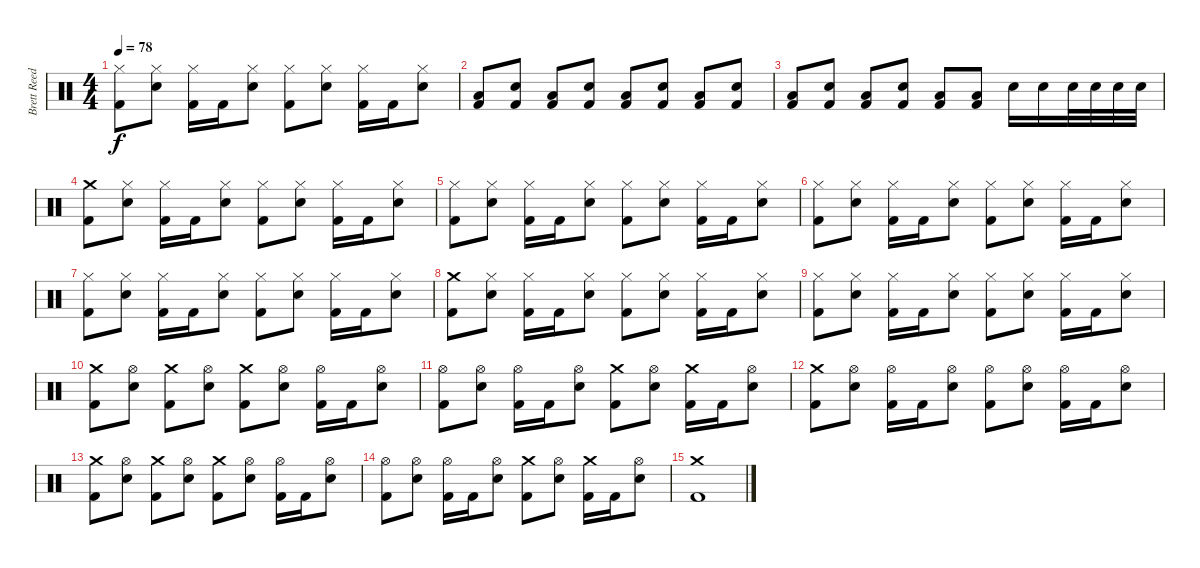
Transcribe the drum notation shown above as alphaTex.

\track ("Brett Reed" "Brett Reed") {instrument percussion}
\staff {score}
\articulation defaults
\ts (4 4)
\tempo 78
\clef neutral
\ks c
("Hi-Hat (closed)" "Kick (hit) 2").8{dy f} ("Hi-Hat (closed)" "Electric Snare (hit)").8 ("Hi-Hat (closed)" "Kick (hit) 2").16 "Kick (hit) 2".16 ("Hi-Hat (closed)" "Electric Snare (hit)").8 ("Hi-Hat (closed)" "Kick (hit) 2").8 ("Hi-Hat (closed)" "Electric Snare (hit)").8 ("Hi-Hat (closed)" "Kick (hit) 2").16 "Kick (hit) 2".16 ("Hi-Hat (closed)" "Electric Snare (hit)").8 |
("Low Floor Tom (hit)" "Kick (hit) 2").8 ("Electric Snare (hit)" "Kick (hit) 2").8 ("Low Floor Tom (hit)" "Kick (hit) 2").8 ("Electric Snare (hit)" "Kick (hit) 2").8 ("Low Floor Tom (hit)" "Kick (hit) 2").8 ("Electric Snare (hit)" "Kick (hit) 2").8 ("Low Floor Tom (hit)" "Kick (hit) 2").8 ("Electric Snare (hit)" "Kick (hit) 2").8 |
("Low Floor Tom (hit)" "Kick (hit) 2").8 ("Electric Snare (hit)" "Kick (hit) 2").8 ("Low Floor Tom (hit)" "Kick (hit) 2").8 ("Electric Snare (hit)" "Kick (hit) 2").8 ("Low Floor Tom (hit)" "Kick (hit) 2").8 ("Low Floor Tom (hit)" "Kick (hit) 2").8 "Snare (hit) 2".16 "Snare (hit) 2".16 "Snare (hit) 2".32 "Snare (hit) 2".32 "Snare (hit) 2".32 "Snare (hit) 2".32 |
("Crash medium (hit)" "Kick (hit) 2").8 ("Hi-Hat (closed)" "Electric Snare (hit)").8 ("Hi-Hat (closed)" "Kick (hit) 2").16 "Kick (hit) 2".16 ("Hi-Hat (closed)" "Electric Snare (hit)").8 ("Hi-Hat (closed)" "Kick (hit) 2").8 ("Hi-Hat (closed)" "Electric Snare (hit)").8 ("Hi-Hat (closed)" "Kick (hit) 2").16 "Kick (hit) 2".16 ("Hi-Hat (closed)" "Electric Snare (hit)").8 |
("Hi-Hat (closed)" "Kick (hit) 2").8 ("Hi-Hat (closed)" "Electric Snare (hit)").8 ("Hi-Hat (closed)" "Kick (hit) 2").16 "Kick (hit) 2".16 ("Hi-Hat (closed)" "Electric Snare (hit)").8 ("Hi-Hat (closed)" "Kick (hit) 2").8 ("Hi-Hat (closed)" "Electric Snare (hit)").8 ("Hi-Hat (closed)" "Kick (hit) 2").16 "Kick (hit) 2".16 ("Hi-Hat (closed)" "Electric Snare (hit)").8 |
("Hi-Hat (closed)" "Kick (hit) 2").8 ("Hi-Hat (closed)" "Electric Snare (hit)").8 ("Hi-Hat (closed)" "Kick (hit) 2").16 "Kick (hit) 2".16 ("Hi-Hat (closed)" "Electric Snare (hit)").8 ("Hi-Hat (closed)" "Kick (hit) 2").8 ("Hi-Hat (closed)" "Electric Snare (hit)").8 ("Hi-Hat (closed)" "Kick (hit) 2").16 "Kick (hit) 2".16 ("Hi-Hat (closed)" "Electric Snare (hit)").8 |
("Hi-Hat (closed)" "Kick (hit) 2").8 ("Hi-Hat (closed)" "Electric Snare (hit)").8 ("Hi-Hat (closed)" "Kick (hit) 2").16 "Kick (hit) 2".16 ("Hi-Hat (closed)" "Electric Snare (hit)").8 ("Hi-Hat (closed)" "Kick (hit) 2").8 ("Hi-Hat (closed)" "Electric Snare (hit)").8 ("Hi-Hat (closed)" "Kick (hit) 2").16 "Kick (hit) 2".16 ("Hi-Hat (closed)" "Electric Snare (hit)").8 |
("Crash medium (hit)" "Kick (hit) 2").8 ("Hi-Hat (closed)" "Electric Snare (hit)").8 ("Hi-Hat (closed)" "Kick (hit) 2").16 "Kick (hit) 2".16 ("Hi-Hat (closed)" "Electric Snare (hit)").8 ("Hi-Hat (closed)" "Kick (hit) 2").8 ("Hi-Hat (closed)" "Electric Snare (hit)").8 ("Hi-Hat (closed)" "Kick (hit) 2").16 "Kick (hit) 2".16 ("Hi-Hat (closed)" "Electric Snare (hit)").8 |
("Hi-Hat (closed)" "Kick (hit) 2").8 ("Hi-Hat (closed)" "Electric Snare (hit)").8 ("Hi-Hat (closed)" "Kick (hit) 2").16 "Kick (hit) 2".16 ("Hi-Hat (closed)" "Electric Snare (hit)").8 ("Hi-Hat (closed)" "Kick (hit) 2").8 ("Hi-Hat (closed)" "Electric Snare (hit)").8 ("Hi-Hat (closed)" "Kick (hit) 2").16 "Kick (hit) 2".16 ("Hi-Hat (closed)" "Electric Snare (hit)").8 |
("Crash medium (hit)" "Kick (hit) 2").8 ("Hi-Hat (open)" "Electric Snare (hit)").8 ("Crash medium (hit)" "Kick (hit) 2").8 ("Hi-Hat (open)" "Electric Snare (hit)").8 ("Crash medium (hit)" "Kick (hit) 2").8 ("Hi-Hat (open)" "Electric Snare (hit)").8 ("Hi-Hat (open)" "Kick (hit) 2").16 "Kick (hit) 2".16 ("Hi-Hat (open)" "Electric Snare (hit)").8 |
("Hi-Hat (open)" "Kick (hit) 2").8 ("Hi-Hat (open)" "Electric Snare (hit)").8 ("Hi-Hat (open)" "Kick (hit) 2").16 "Kick (hit) 2".16 ("Hi-Hat (open)" "Electric Snare (hit)").8 ("Crash medium (hit)" "Kick (hit) 2").8 ("Hi-Hat (open)" "Electric Snare (hit)").8 ("Crash medium (hit)" "Kick (hit) 2").16 "Kick (hit) 2".16 ("Hi-Hat (open)" "Electric Snare (hit)").8 |
("Crash medium (hit)" "Kick (hit) 2").8 ("Hi-Hat (open)" "Electric Snare (hit)").8 ("Hi-Hat (open)" "Kick (hit) 2").16 "Kick (hit) 2".16 ("Hi-Hat (open)" "Electric Snare (hit)").8 ("Hi-Hat (open)" "Kick (hit) 2").8 ("Hi-Hat (open)" "Electric Snare (hit)").8 ("Hi-Hat (open)" "Kick (hit) 2").16 "Kick (hit) 2".16 ("Hi-Hat (open)" "Electric Snare (hit)").8 |
("Crash medium (hit)" "Kick (hit) 2").8 ("Hi-Hat (open)" "Electric Snare (hit)").8 ("Crash medium (hit)" "Kick (hit) 2").8 ("Hi-Hat (open)" "Electric Snare (hit)").8 ("Crash medium (hit)" "Kick (hit) 2").8 ("Hi-Hat (open)" "Electric Snare (hit)").8 ("Hi-Hat (open)" "Kick (hit) 2").16 "Kick (hit) 2".16 ("Hi-Hat (open)" "Electric Snare (hit)").8 |
("Hi-Hat (open)" "Kick (hit) 2").8 ("Hi-Hat (open)" "Electric Snare (hit)").8 ("Hi-Hat (open)" "Kick (hit) 2").16 "Kick (hit) 2".16 ("Hi-Hat (open)" "Electric Snare (hit)").8 ("Crash medium (hit)" "Kick (hit) 2").8 ("Hi-Hat (open)" "Electric Snare (hit)").8 ("Crash medium (hit)" "Kick (hit) 2").16 "Kick (hit) 2".16 ("Hi-Hat (open)" "Electric Snare (hit)").8 |
("Crash medium (hit)" "Kick (hit) 2").1
